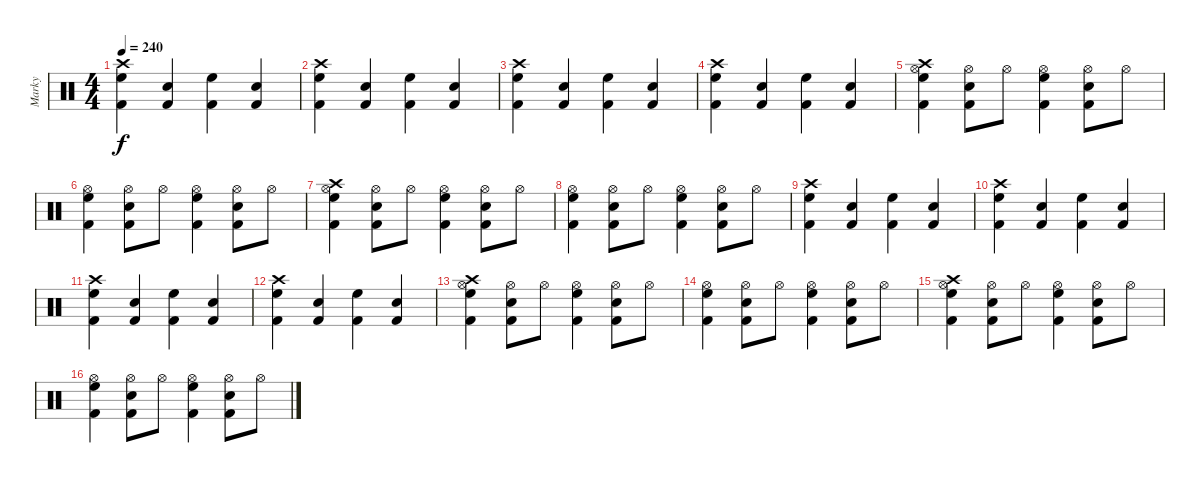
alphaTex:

\track ("Marky" "Marky") {instrument percussion}
\staff {score}
\articulation defaults
\ts (4 4)
\tempo 240
\clef neutral
\ks c
("Crash high (hit)" "High Floor Tom (hit)" "Kick (hit) 2").4{dy f} ("Electric Snare (hit)" "Kick (hit) 2").4 ("High Floor Tom (hit)" "Kick (hit) 2").4 ("Electric Snare (hit)" "Kick (hit) 2").4 |
("Crash high (hit)" "High Floor Tom (hit)" "Kick (hit) 2").4 ("Electric Snare (hit)" "Kick (hit) 2").4 ("High Floor Tom (hit)" "Kick (hit) 2").4 ("Electric Snare (hit)" "Kick (hit) 2").4 |
("Crash high (hit)" "High Floor Tom (hit)" "Kick (hit) 2").4 ("Electric Snare (hit)" "Kick (hit) 2").4 ("High Floor Tom (hit)" "Kick (hit) 2").4 ("Electric Snare (hit)" "Kick (hit) 2").4 |
("Crash high (hit)" "High Floor Tom (hit)" "Kick (hit) 2").4 ("Electric Snare (hit)" "Kick (hit) 2").4 ("High Floor Tom (hit)" "Kick (hit) 2").4 ("Electric Snare (hit)" "Kick (hit) 2").4 |
("Crash high (hit)" "Hi-Hat (open)" "High Floor Tom (hit)" "Kick (hit) 2").4 ("Hi-Hat (open)" "Electric Snare (hit)" "Kick (hit) 2").8 "Hi-Hat (open)".8 ("Hi-Hat (open)" "High Floor Tom (hit)" "Kick (hit) 2").4 ("Hi-Hat (open)" "Electric Snare (hit)" "Kick (hit) 2").8 "Hi-Hat (open)".8 |
("Hi-Hat (open)" "High Floor Tom (hit)" "Kick (hit) 2").4 ("Hi-Hat (open)" "Electric Snare (hit)" "Kick (hit) 2").8 "Hi-Hat (open)".8 ("Hi-Hat (open)" "High Floor Tom (hit)" "Kick (hit) 2").4 ("Hi-Hat (open)" "Electric Snare (hit)" "Kick (hit) 2").8 "Hi-Hat (open)".8 |
("Crash high (hit)" "Hi-Hat (open)" "High Floor Tom (hit)" "Kick (hit) 2").4 ("Hi-Hat (open)" "Electric Snare (hit)" "Kick (hit) 2").8 "Hi-Hat (open)".8 ("Hi-Hat (open)" "High Floor Tom (hit)" "Kick (hit) 2").4 ("Hi-Hat (open)" "Electric Snare (hit)" "Kick (hit) 2").8 "Hi-Hat (open)".8 |
("Hi-Hat (open)" "High Floor Tom (hit)" "Kick (hit) 2").4 ("Hi-Hat (open)" "Electric Snare (hit)" "Kick (hit) 2").8 "Hi-Hat (open)".8 ("Hi-Hat (open)" "High Floor Tom (hit)" "Kick (hit) 2").4 ("Hi-Hat (open)" "Electric Snare (hit)" "Kick (hit) 2").8 "Hi-Hat (open)".8 |
("Crash high (hit)" "High Floor Tom (hit)" "Kick (hit) 2").4 ("Electric Snare (hit)" "Kick (hit) 2").4 ("High Floor Tom (hit)" "Kick (hit) 2").4 ("Electric Snare (hit)" "Kick (hit) 2").4 |
("Crash high (hit)" "High Floor Tom (hit)" "Kick (hit) 2").4 ("Electric Snare (hit)" "Kick (hit) 2").4 ("High Floor Tom (hit)" "Kick (hit) 2").4 ("Electric Snare (hit)" "Kick (hit) 2").4 |
("Crash high (hit)" "High Floor Tom (hit)" "Kick (hit) 2").4 ("Electric Snare (hit)" "Kick (hit) 2").4 ("High Floor Tom (hit)" "Kick (hit) 2").4 ("Electric Snare (hit)" "Kick (hit) 2").4 |
("Crash high (hit)" "High Floor Tom (hit)" "Kick (hit) 2").4 ("Electric Snare (hit)" "Kick (hit) 2").4 ("High Floor Tom (hit)" "Kick (hit) 2").4 ("Electric Snare (hit)" "Kick (hit) 2").4 |
("Crash high (hit)" "Hi-Hat (open)" "High Floor Tom (hit)" "Kick (hit) 2").4 ("Hi-Hat (open)" "Electric Snare (hit)" "Kick (hit) 2").8 "Hi-Hat (open)".8 ("Hi-Hat (open)" "High Floor Tom (hit)" "Kick (hit) 2").4 ("Hi-Hat (open)" "Electric Snare (hit)" "Kick (hit) 2").8 "Hi-Hat (open)".8 |
("Hi-Hat (open)" "High Floor Tom (hit)" "Kick (hit) 2").4 ("Hi-Hat (open)" "Electric Snare (hit)" "Kick (hit) 2").8 "Hi-Hat (open)".8 ("Hi-Hat (open)" "High Floor Tom (hit)" "Kick (hit) 2").4 ("Hi-Hat (open)" "Electric Snare (hit)" "Kick (hit) 2").8 "Hi-Hat (open)".8 |
("Crash high (hit)" "Hi-Hat (open)" "High Floor Tom (hit)" "Kick (hit) 2").4 ("Hi-Hat (open)" "Electric Snare (hit)" "Kick (hit) 2").8 "Hi-Hat (open)".8 ("Hi-Hat (open)" "High Floor Tom (hit)" "Kick (hit) 2").4 ("Hi-Hat (open)" "Electric Snare (hit)" "Kick (hit) 2").8 "Hi-Hat (open)".8 |
("Hi-Hat (open)" "High Floor Tom (hit)" "Kick (hit) 2").4 ("Hi-Hat (open)" "Electric Snare (hit)" "Kick (hit) 2").8 "Hi-Hat (open)".8 ("Hi-Hat (open)" "High Floor Tom (hit)" "Kick (hit) 2").4 ("Hi-Hat (open)" "Electric Snare (hit)" "Kick (hit) 2").8 "Hi-Hat (open)".8
